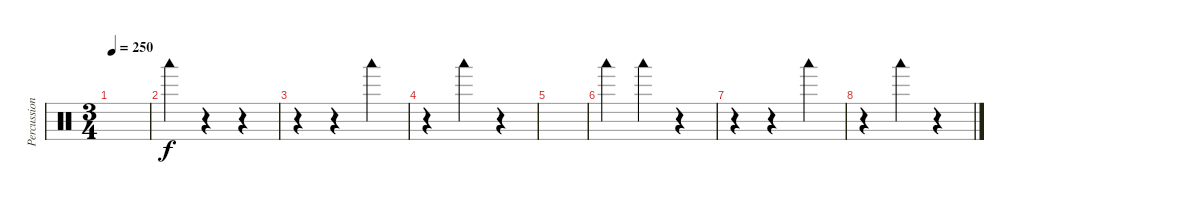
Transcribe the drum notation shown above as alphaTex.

\track ("Percussion" "Percussion") {instrument percussion}
\staff {score}
\articulation defaults
\ts (3 4)
\tempo 250
\clef neutral
\ks c
|
"Woodblock low (hit)".4 r.4 r.4 |
r.4 r.4 "Woodblock low (hit)".4 |
r.4 "Woodblock low (hit)".4 r.4 |
|
"Woodblock low (hit)".4 "Woodblock low (hit)".4 r.4 |
r.4 r.4 "Woodblock low (hit)".4 |
r.4 "Woodblock low (hit)".4 r.4
